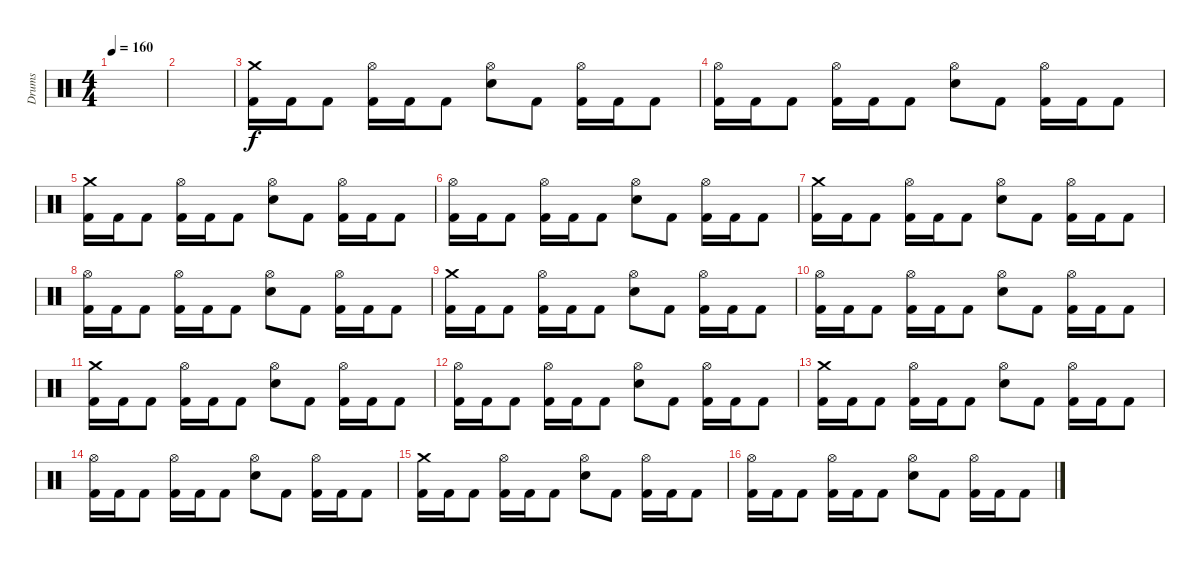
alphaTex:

\track ("Drums" "Drums") {instrument percussion}
\staff {score}
\articulation defaults
\ts (4 4)
\tempo 160
\clef neutral
\ks c
|
|
("Crash medium (hit)" "Kick (hit) 2").16 "Kick (hit) 2".16 "Kick (hit) 2".8 ("Hi-Hat (open)" "Kick (hit) 2").16 "Kick (hit) 2".16 "Kick (hit) 2".8 ("Hi-Hat (open)" "Snare (hit) 2").8 "Kick (hit) 2".8 ("Hi-Hat (open)" "Kick (hit) 2").16 "Kick (hit) 2".16 "Kick (hit) 2".8 |
("Hi-Hat (open)" "Kick (hit) 2").16 "Kick (hit) 2".16 "Kick (hit) 2".8 ("Hi-Hat (open)" "Kick (hit) 2").16 "Kick (hit) 2".16 "Kick (hit) 2".8 ("Hi-Hat (open)" "Snare (hit) 2").8 "Kick (hit) 2".8 ("Hi-Hat (open)" "Kick (hit) 2").16 "Kick (hit) 2".16 "Kick (hit) 2".8 |
("Crash medium (hit)" "Kick (hit) 2").16 "Kick (hit) 2".16 "Kick (hit) 2".8 ("Hi-Hat (open)" "Kick (hit) 2").16 "Kick (hit) 2".16 "Kick (hit) 2".8 ("Hi-Hat (open)" "Snare (hit) 2").8 "Kick (hit) 2".8 ("Hi-Hat (open)" "Kick (hit) 2").16 "Kick (hit) 2".16 "Kick (hit) 2".8 |
("Hi-Hat (open)" "Kick (hit) 2").16 "Kick (hit) 2".16 "Kick (hit) 2".8 ("Hi-Hat (open)" "Kick (hit) 2").16 "Kick (hit) 2".16 "Kick (hit) 2".8 ("Hi-Hat (open)" "Snare (hit) 2").8 "Kick (hit) 2".8 ("Hi-Hat (open)" "Kick (hit) 2").16 "Kick (hit) 2".16 "Kick (hit) 2".8 |
("Crash medium (hit)" "Kick (hit) 2").16 "Kick (hit) 2".16 "Kick (hit) 2".8 ("Hi-Hat (open)" "Kick (hit) 2").16 "Kick (hit) 2".16 "Kick (hit) 2".8 ("Hi-Hat (open)" "Snare (hit) 2").8 "Kick (hit) 2".8 ("Hi-Hat (open)" "Kick (hit) 2").16 "Kick (hit) 2".16 "Kick (hit) 2".8 |
("Hi-Hat (open)" "Kick (hit) 2").16 "Kick (hit) 2".16 "Kick (hit) 2".8 ("Hi-Hat (open)" "Kick (hit) 2").16 "Kick (hit) 2".16 "Kick (hit) 2".8 ("Hi-Hat (open)" "Snare (hit) 2").8 "Kick (hit) 2".8 ("Hi-Hat (open)" "Kick (hit) 2").16 "Kick (hit) 2".16 "Kick (hit) 2".8 |
("Crash medium (hit)" "Kick (hit) 2").16 "Kick (hit) 2".16 "Kick (hit) 2".8 ("Hi-Hat (open)" "Kick (hit) 2").16 "Kick (hit) 2".16 "Kick (hit) 2".8 ("Hi-Hat (open)" "Snare (hit) 2").8 "Kick (hit) 2".8 ("Hi-Hat (open)" "Kick (hit) 2").16 "Kick (hit) 2".16 "Kick (hit) 2".8 |
("Hi-Hat (open)" "Kick (hit) 2").16 "Kick (hit) 2".16 "Kick (hit) 2".8 ("Hi-Hat (open)" "Kick (hit) 2").16 "Kick (hit) 2".16 "Kick (hit) 2".8 ("Hi-Hat (open)" "Snare (hit) 2").8 "Kick (hit) 2".8 ("Hi-Hat (open)" "Kick (hit) 2").16 "Kick (hit) 2".16 "Kick (hit) 2".8 |
("Crash medium (hit)" "Kick (hit) 2").16 "Kick (hit) 2".16 "Kick (hit) 2".8 ("Hi-Hat (open)" "Kick (hit) 2").16 "Kick (hit) 2".16 "Kick (hit) 2".8 ("Hi-Hat (open)" "Snare (hit) 2").8 "Kick (hit) 2".8 ("Hi-Hat (open)" "Kick (hit) 2").16 "Kick (hit) 2".16 "Kick (hit) 2".8 |
("Hi-Hat (open)" "Kick (hit) 2").16 "Kick (hit) 2".16 "Kick (hit) 2".8 ("Hi-Hat (open)" "Kick (hit) 2").16 "Kick (hit) 2".16 "Kick (hit) 2".8 ("Hi-Hat (open)" "Snare (hit) 2").8 "Kick (hit) 2".8 ("Hi-Hat (open)" "Kick (hit) 2").16 "Kick (hit) 2".16 "Kick (hit) 2".8 |
("Crash medium (hit)" "Kick (hit) 2").16 "Kick (hit) 2".16 "Kick (hit) 2".8 ("Hi-Hat (open)" "Kick (hit) 2").16 "Kick (hit) 2".16 "Kick (hit) 2".8 ("Hi-Hat (open)" "Snare (hit) 2").8 "Kick (hit) 2".8 ("Hi-Hat (open)" "Kick (hit) 2").16 "Kick (hit) 2".16 "Kick (hit) 2".8 |
("Hi-Hat (open)" "Kick (hit) 2").16 "Kick (hit) 2".16 "Kick (hit) 2".8 ("Hi-Hat (open)" "Kick (hit) 2").16 "Kick (hit) 2".16 "Kick (hit) 2".8 ("Hi-Hat (open)" "Snare (hit) 2").8 "Kick (hit) 2".8 ("Hi-Hat (open)" "Kick (hit) 2").16 "Kick (hit) 2".16 "Kick (hit) 2".8 |
("Crash medium (hit)" "Kick (hit) 2").16 "Kick (hit) 2".16 "Kick (hit) 2".8 ("Hi-Hat (open)" "Kick (hit) 2").16 "Kick (hit) 2".16 "Kick (hit) 2".8 ("Hi-Hat (open)" "Snare (hit) 2").8 "Kick (hit) 2".8 ("Hi-Hat (open)" "Kick (hit) 2").16 "Kick (hit) 2".16 "Kick (hit) 2".8 |
("Hi-Hat (open)" "Kick (hit) 2").16 "Kick (hit) 2".16 "Kick (hit) 2".8 ("Hi-Hat (open)" "Kick (hit) 2").16 "Kick (hit) 2".16 "Kick (hit) 2".8 ("Hi-Hat (open)" "Snare (hit) 2").8 "Kick (hit) 2".8 ("Hi-Hat (open)" "Kick (hit) 2").16 "Kick (hit) 2".16 "Kick (hit) 2".8
